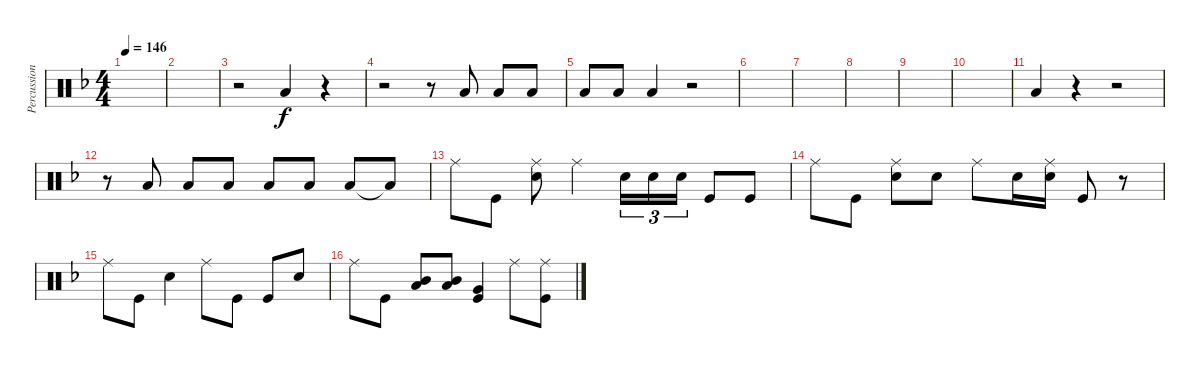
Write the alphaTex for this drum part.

\track ("Percussioni" "Percussion") {instrument percussion}
\staff {score}
\articulation defaults
\ts (4 4)
\tempo 146
\clef neutral
\ks dminor
|
|
r.2 "Low Floor Tom (hit)".4 r.4 |
r.2 r.8 "Low Floor Tom (hit)".8 "Low Floor Tom (hit)".8 "Low Floor Tom (hit)".8 |
"Low Floor Tom (hit)".8 "Low Floor Tom (hit)".8 "Low Floor Tom (hit)".4 r.2 |
|
|
|
|
|
"Low Floor Tom (hit)".4 r.4 r.2 |
r.8 "Low Floor Tom (hit)".8 "Low Floor Tom (hit)".8 "Low Floor Tom (hit)".8 "Low Floor Tom (hit)".8 "Low Floor Tom (hit)".8 "Low Floor Tom (hit)".8 "Low Floor Tom (hit)"{t}.8 |
"Ride (middle)".8 "Kick (hit)".8 ("Snare (hit) 2" "Ride (middle)").8 "Ride (middle)".4 "Snare (hit) 2".16{tu (3 2)} "Snare (hit) 2".16{tu (3 2)} "Snare (hit) 2".16{tu (3 2)} "Kick (hit)".8 "Kick (hit)".8 |
"Ride (middle)".8 "Kick (hit)".8 ("Snare (hit) 2" "Ride (middle)").8 "Snare (hit) 2".8 "Ride (middle)".8 "Snare (hit) 2".16 ("Snare (hit) 2" "Ride (middle)").16 "Kick (hit)".8 r.8 |
"Ride (middle)".8 "Kick (hit)".8 "Snare (hit) 2".4 "Ride (middle)".8 "Kick (hit)".8 "Kick (hit)".8 "Snare (hit) 2".8 |
"Ride (middle)".8 "Kick (hit)".8 ("Mid Tom (hit)" "Low Tom (hit)").8 ("Mid Tom (hit)" "Low Tom (hit)").8 ("Kick (hit)" "Very Low Tom (hit)").4 "Ride (middle)".8 ("Kick (hit)" "Ride (middle)").8
